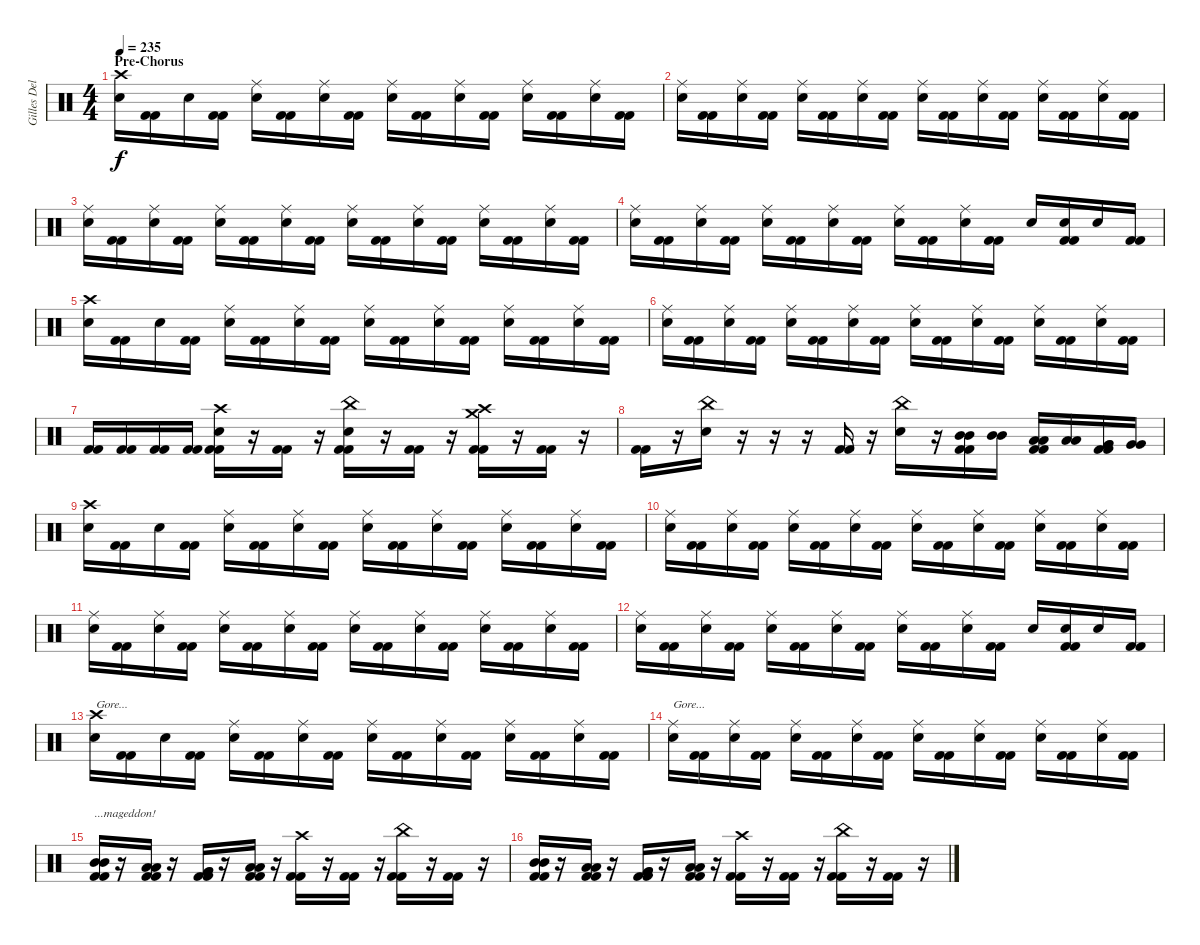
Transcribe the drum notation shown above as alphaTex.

\track ("Gilles Delecroix" "Gilles Del") {instrument percussion}
\staff {score}
\articulation defaults
\ts (4 4)
\section ("" "Pre-Chorus")
\tempo 235
\clef neutral
\ks c
("Crash high (hit)" "Electric Snare (hit)").16{dy f} ("Kick (hit) 2" "Kick (hit) 2").16 "Electric Snare (hit)".16 ("Kick (hit) 2" "Kick (hit) 2").16 ("Ride (middle)" "Electric Snare (hit)").16 ("Kick (hit) 2" "Kick (hit) 2").16 ("Ride (middle)" "Electric Snare (hit)").16 ("Kick (hit) 2" "Kick (hit) 2").16 ("Ride (middle)" "Electric Snare (hit)").16 ("Kick (hit) 2" "Kick (hit) 2").16 ("Ride (middle)" "Electric Snare (hit)").16 ("Kick (hit) 2" "Kick (hit) 2").16 ("Ride (middle)" "Electric Snare (hit)").16 ("Kick (hit) 2" "Kick (hit) 2").16 ("Ride (middle)" "Electric Snare (hit)").16 ("Kick (hit) 2" "Kick (hit) 2").16 |
("Ride (middle)" "Electric Snare (hit)").16 ("Kick (hit) 2" "Kick (hit) 2").16 ("Ride (middle)" "Electric Snare (hit)").16 ("Kick (hit) 2" "Kick (hit) 2").16 ("Ride (middle)" "Electric Snare (hit)").16 ("Kick (hit) 2" "Kick (hit) 2").16 ("Ride (middle)" "Electric Snare (hit)").16 ("Kick (hit) 2" "Kick (hit) 2").16 ("Ride (middle)" "Electric Snare (hit)").16 ("Kick (hit) 2" "Kick (hit) 2").16 ("Ride (middle)" "Electric Snare (hit)").16 ("Kick (hit) 2" "Kick (hit) 2").16 ("Ride (middle)" "Electric Snare (hit)").16 ("Kick (hit) 2" "Kick (hit) 2").16 ("Ride (middle)" "Electric Snare (hit)").16 ("Kick (hit) 2" "Kick (hit) 2").16 |
("Ride (middle)" "Electric Snare (hit)").16 ("Kick (hit) 2" "Kick (hit) 2").16 ("Ride (middle)" "Electric Snare (hit)").16 ("Kick (hit) 2" "Kick (hit) 2").16 ("Ride (middle)" "Electric Snare (hit)").16 ("Kick (hit) 2" "Kick (hit) 2").16 ("Ride (middle)" "Electric Snare (hit)").16 ("Kick (hit) 2" "Kick (hit) 2").16 ("Ride (middle)" "Electric Snare (hit)").16 ("Kick (hit) 2" "Kick (hit) 2").16 ("Ride (middle)" "Electric Snare (hit)").16 ("Kick (hit) 2" "Kick (hit) 2").16 ("Ride (middle)" "Electric Snare (hit)").16 ("Kick (hit) 2" "Kick (hit) 2").16 ("Ride (middle)" "Electric Snare (hit)").16 ("Kick (hit) 2" "Kick (hit) 2").16 |
("Ride (middle)" "Electric Snare (hit)").16 ("Kick (hit) 2" "Kick (hit) 2").16 ("Ride (middle)" "Electric Snare (hit)").16 ("Kick (hit) 2" "Kick (hit) 2").16 ("Ride (middle)" "Electric Snare (hit)").16 ("Kick (hit) 2" "Kick (hit) 2").16 ("Ride (middle)" "Electric Snare (hit)").16 ("Kick (hit) 2" "Kick (hit) 2").16 ("Ride (middle)" "Electric Snare (hit)").16 ("Kick (hit) 2" "Kick (hit) 2").16 ("Ride (middle)" "Electric Snare (hit)").16 ("Kick (hit) 2" "Kick (hit) 2").16 "Electric Snare (hit)".16 ("Electric Snare (hit)" "Kick (hit) 2" "Kick (hit) 2").16 "Electric Snare (hit)".16 ("Kick (hit) 2" "Kick (hit) 2").16 |
("Crash high (hit)" "Electric Snare (hit)").16 ("Kick (hit) 2" "Kick (hit) 2").16 "Electric Snare (hit)".16 ("Kick (hit) 2" "Kick (hit) 2").16 ("Ride (middle)" "Electric Snare (hit)").16 ("Kick (hit) 2" "Kick (hit) 2").16 ("Ride (middle)" "Electric Snare (hit)").16 ("Kick (hit) 2" "Kick (hit) 2").16 ("Ride (middle)" "Electric Snare (hit)").16 ("Kick (hit) 2" "Kick (hit) 2").16 ("Ride (middle)" "Electric Snare (hit)").16 ("Kick (hit) 2" "Kick (hit) 2").16 ("Ride (middle)" "Electric Snare (hit)").16 ("Kick (hit) 2" "Kick (hit) 2").16 ("Ride (middle)" "Electric Snare (hit)").16 ("Kick (hit) 2" "Kick (hit) 2").16 |
("Ride (middle)" "Electric Snare (hit)").16 ("Kick (hit) 2" "Kick (hit) 2").16 ("Ride (middle)" "Electric Snare (hit)").16 ("Kick (hit) 2" "Kick (hit) 2").16 ("Ride (middle)" "Electric Snare (hit)").16 ("Kick (hit) 2" "Kick (hit) 2").16 ("Ride (middle)" "Electric Snare (hit)").16 ("Kick (hit) 2" "Kick (hit) 2").16 ("Ride (middle)" "Electric Snare (hit)").16 ("Kick (hit) 2" "Kick (hit) 2").16 ("Ride (middle)" "Electric Snare (hit)").16 ("Kick (hit) 2" "Kick (hit) 2").16 ("Ride (middle)" "Electric Snare (hit)").16 ("Kick (hit) 2" "Kick (hit) 2").16 ("Ride (middle)" "Electric Snare (hit)").16 ("Kick (hit) 2" "Kick (hit) 2").16 |
("Kick (hit) 2" "Kick (hit) 2").16 ("Kick (hit) 2" "Kick (hit) 2").16 ("Kick (hit) 2" "Kick (hit) 2").16 ("Kick (hit) 2" "Kick (hit) 2").16 ("Crash high (hit)" "Electric Snare (hit)" "Kick (hit) 2" "Kick (hit) 2").16 r.16 ("Kick (hit) 2" "Kick (hit) 2").16 r.16 ("China (hit)" "Electric Snare (hit)" "Kick (hit) 2" "Kick (hit) 2").16 r.16 ("Kick (hit) 2" "Kick (hit) 2").16 r.16 ("Crash high (hit)" "Crash medium (hit)" "Kick (hit) 2" "Kick (hit) 2").16 r.16 ("Kick (hit) 2" "Kick (hit) 2").16 r.16 |
("Kick (hit) 2" "Kick (hit) 2").16 r.16 ("China (hit)" "Electric Snare (hit)").16 r.16 r.16 r.16 ("Kick (hit) 2" "Kick (hit) 2").16 r.16 ("China (hit)" "Electric Snare (hit)").16 r.16 ("Mid Tom (hit)" "Mid Tom (hit)" "Kick (hit) 2" "Kick (hit) 2").16 ("Mid Tom (hit)" "Mid Tom (hit)").16 ("Low Tom (hit)" "Low Tom (hit)" "Kick (hit) 2" "Kick (hit) 2").16 ("Low Tom (hit)" "Low Tom (hit)").16 ("Very Low Tom (hit)" "Very Low Tom (hit)" "Kick (hit) 2" "Kick (hit) 2").16 ("Very Low Tom (hit)" "Very Low Tom (hit)").16 |
("Crash high (hit)" "Electric Snare (hit)").16 ("Kick (hit) 2" "Kick (hit) 2").16 "Electric Snare (hit)".16 ("Kick (hit) 2" "Kick (hit) 2").16 ("Ride (middle)" "Electric Snare (hit)").16 ("Kick (hit) 2" "Kick (hit) 2").16 ("Ride (middle)" "Electric Snare (hit)").16 ("Kick (hit) 2" "Kick (hit) 2").16 ("Ride (middle)" "Electric Snare (hit)").16 ("Kick (hit) 2" "Kick (hit) 2").16 ("Ride (middle)" "Electric Snare (hit)").16 ("Kick (hit) 2" "Kick (hit) 2").16 ("Ride (middle)" "Electric Snare (hit)").16 ("Kick (hit) 2" "Kick (hit) 2").16 ("Ride (middle)" "Electric Snare (hit)").16 ("Kick (hit) 2" "Kick (hit) 2").16 |
("Ride (middle)" "Electric Snare (hit)").16 ("Kick (hit) 2" "Kick (hit) 2").16 ("Ride (middle)" "Electric Snare (hit)").16 ("Kick (hit) 2" "Kick (hit) 2").16 ("Ride (middle)" "Electric Snare (hit)").16 ("Kick (hit) 2" "Kick (hit) 2").16 ("Ride (middle)" "Electric Snare (hit)").16 ("Kick (hit) 2" "Kick (hit) 2").16 ("Ride (middle)" "Electric Snare (hit)").16 ("Kick (hit) 2" "Kick (hit) 2").16 ("Ride (middle)" "Electric Snare (hit)").16 ("Kick (hit) 2" "Kick (hit) 2").16 ("Ride (middle)" "Electric Snare (hit)").16 ("Kick (hit) 2" "Kick (hit) 2").16 ("Ride (middle)" "Electric Snare (hit)").16 ("Kick (hit) 2" "Kick (hit) 2").16 |
("Ride (middle)" "Electric Snare (hit)").16 ("Kick (hit) 2" "Kick (hit) 2").16 ("Ride (middle)" "Electric Snare (hit)").16 ("Kick (hit) 2" "Kick (hit) 2").16 ("Ride (middle)" "Electric Snare (hit)").16 ("Kick (hit) 2" "Kick (hit) 2").16 ("Ride (middle)" "Electric Snare (hit)").16 ("Kick (hit) 2" "Kick (hit) 2").16 ("Ride (middle)" "Electric Snare (hit)").16 ("Kick (hit) 2" "Kick (hit) 2").16 ("Ride (middle)" "Electric Snare (hit)").16 ("Kick (hit) 2" "Kick (hit) 2").16 ("Ride (middle)" "Electric Snare (hit)").16 ("Kick (hit) 2" "Kick (hit) 2").16 ("Ride (middle)" "Electric Snare (hit)").16 ("Kick (hit) 2" "Kick (hit) 2").16 |
("Ride (middle)" "Electric Snare (hit)").16 ("Kick (hit) 2" "Kick (hit) 2").16 ("Ride (middle)" "Electric Snare (hit)").16 ("Kick (hit) 2" "Kick (hit) 2").16 ("Ride (middle)" "Electric Snare (hit)").16 ("Kick (hit) 2" "Kick (hit) 2").16 ("Ride (middle)" "Electric Snare (hit)").16 ("Kick (hit) 2" "Kick (hit) 2").16 ("Ride (middle)" "Electric Snare (hit)").16 ("Kick (hit) 2" "Kick (hit) 2").16 ("Ride (middle)" "Electric Snare (hit)").16 ("Kick (hit) 2" "Kick (hit) 2").16 "Electric Snare (hit)".16 ("Electric Snare (hit)" "Kick (hit) 2" "Kick (hit) 2").16 "Electric Snare (hit)".16 ("Kick (hit) 2" "Kick (hit) 2").16 |
("Crash high (hit)" "Electric Snare (hit)").16{txt "Gore..."} ("Kick (hit) 2" "Kick (hit) 2").16 "Electric Snare (hit)".16 ("Kick (hit) 2" "Kick (hit) 2").16 ("Ride (middle)" "Electric Snare (hit)").16 ("Kick (hit) 2" "Kick (hit) 2").16 ("Ride (middle)" "Electric Snare (hit)").16 ("Kick (hit) 2" "Kick (hit) 2").16 ("Ride (middle)" "Electric Snare (hit)").16 ("Kick (hit) 2" "Kick (hit) 2").16 ("Ride (middle)" "Electric Snare (hit)").16 ("Kick (hit) 2" "Kick (hit) 2").16 ("Ride (middle)" "Electric Snare (hit)").16 ("Kick (hit) 2" "Kick (hit) 2").16 ("Ride (middle)" "Electric Snare (hit)").16 ("Kick (hit) 2" "Kick (hit) 2").16 |
("Ride (middle)" "Electric Snare (hit)").16{txt "Gore..."} ("Kick (hit) 2" "Kick (hit) 2").16 ("Ride (middle)" "Electric Snare (hit)").16 ("Kick (hit) 2" "Kick (hit) 2").16 ("Ride (middle)" "Electric Snare (hit)").16 ("Kick (hit) 2" "Kick (hit) 2").16 ("Ride (middle)" "Electric Snare (hit)").16 ("Kick (hit) 2" "Kick (hit) 2").16 ("Ride (middle)" "Electric Snare (hit)").16 ("Kick (hit) 2" "Kick (hit) 2").16 ("Ride (middle)" "Electric Snare (hit)").16 ("Kick (hit) 2" "Kick (hit) 2").16 ("Ride (middle)" "Electric Snare (hit)").16 ("Kick (hit) 2" "Kick (hit) 2").16 ("Ride (middle)" "Electric Snare (hit)").16 ("Kick (hit) 2" "Kick (hit) 2").16 |
("Mid Tom (hit)" "Mid Tom (hit)" "Kick (hit) 2" "Kick (hit) 2").16{txt "...mageddon!"} r.16 ("Low Tom (hit)" "Low Tom (hit)" "Kick (hit) 2" "Kick (hit) 2").16 r.16 ("Very Low Tom (hit)" "Very Low Tom (hit)" "Kick (hit) 2" "Kick (hit) 2").16 r.16 ("Low Floor Tom (hit)" "Low Floor Tom (hit)" "Kick (hit) 2" "Kick (hit) 2").16 r.16 ("Crash high (hit)" "Kick (hit) 2" "Kick (hit) 2").16 r.16 ("Kick (hit) 2" "Kick (hit) 2").16 r.16 ("China (hit)" "Kick (hit) 2" "Kick (hit) 2").16 r.16 ("Kick (hit) 2" "Kick (hit) 2").16 r.16 |
("Mid Tom (hit)" "Mid Tom (hit)" "Kick (hit) 2" "Kick (hit) 2").16 r.16 ("Low Tom (hit)" "Low Tom (hit)" "Kick (hit) 2" "Kick (hit) 2").16 r.16 ("Very Low Tom (hit)" "Very Low Tom (hit)" "Kick (hit) 2" "Kick (hit) 2").16 r.16 ("Low Floor Tom (hit)" "Low Floor Tom (hit)" "Kick (hit) 2" "Kick (hit) 2").16 r.16 ("Crash high (hit)" "Kick (hit) 2" "Kick (hit) 2").16 r.16 ("Kick (hit) 2" "Kick (hit) 2").16 r.16 ("China (hit)" "Kick (hit) 2" "Kick (hit) 2").16 r.16 ("Kick (hit) 2" "Kick (hit) 2").16 r.16
